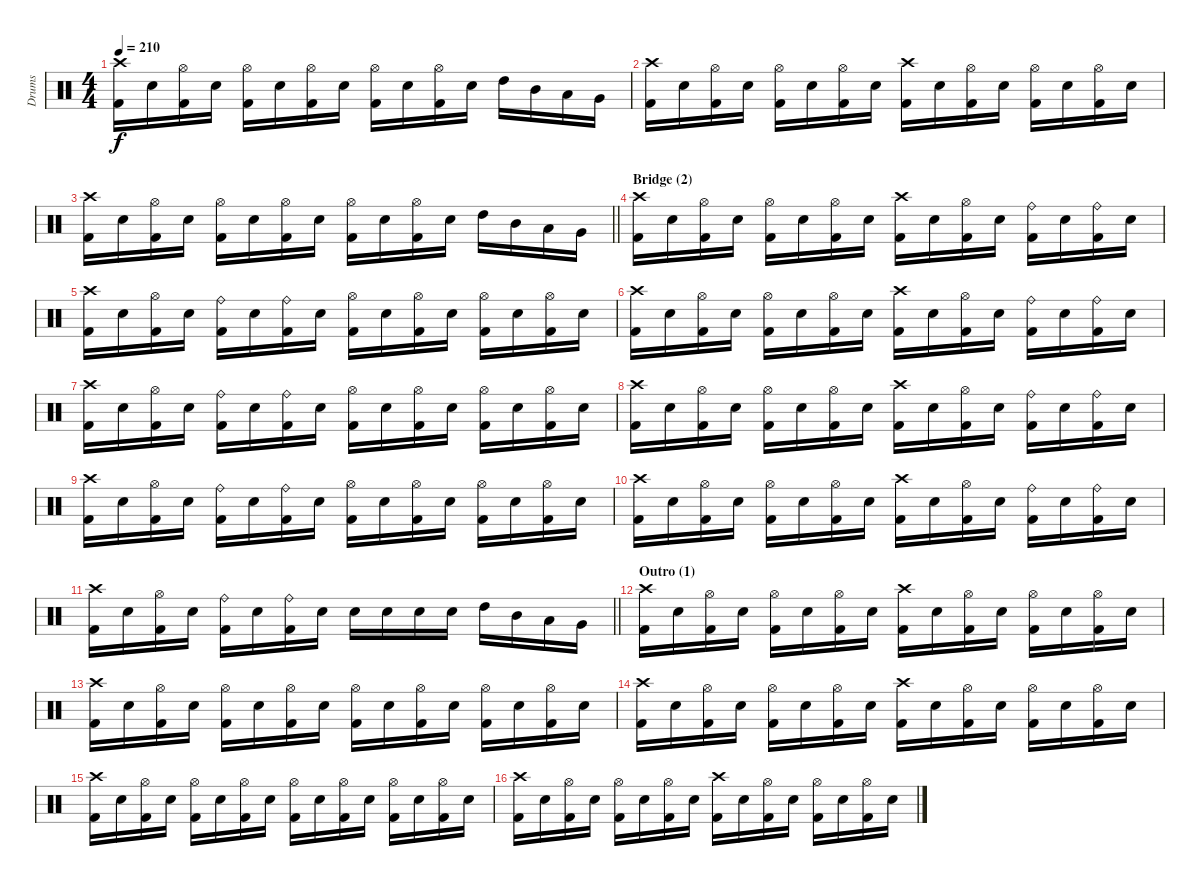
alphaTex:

\track ("Drums" "Drums") {instrument percussion}
\staff {score}
\articulation defaults
\ts (4 4)
\tempo 210
\clef neutral
\ks c
("Crash high (hit)" "Kick (hit) 2").16{dy f} "Electric Snare (hit)".16 ("Hi-Hat (open)" "Kick (hit) 2").16 "Electric Snare (hit)".16 ("Hi-Hat (open)" "Kick (hit) 2").16 "Electric Snare (hit)".16 ("Hi-Hat (open)" "Kick (hit) 2").16 "Electric Snare (hit)".16 ("Hi-Hat (open)" "Kick (hit) 2").16 "Electric Snare (hit)".16 ("Hi-Hat (open)" "Kick (hit) 2").16 "Electric Snare (hit)".16 "High Tom (hit)".16 "Mid Tom (hit)".16 "Low Tom (hit)".16 "Very Low Tom (hit)".16 |
("Crash high (hit)" "Kick (hit) 2").16 "Electric Snare (hit)".16 ("Hi-Hat (open)" "Kick (hit) 2").16 "Electric Snare (hit)".16 ("Hi-Hat (open)" "Kick (hit) 2").16 "Electric Snare (hit)".16 ("Hi-Hat (open)" "Kick (hit) 2").16 "Electric Snare (hit)".16 ("Crash high (hit)" "Kick (hit) 2").16 "Electric Snare (hit)".16 ("Hi-Hat (open)" "Kick (hit) 2").16 "Electric Snare (hit)".16 ("Hi-Hat (open)" "Kick (hit) 2").16 "Electric Snare (hit)".16 ("Hi-Hat (open)" "Kick (hit) 2").16 "Electric Snare (hit)".16 |
\barLineRight lightlight
("Crash high (hit)" "Kick (hit) 2").16 "Electric Snare (hit)".16 ("Hi-Hat (open)" "Kick (hit) 2").16 "Electric Snare (hit)".16 ("Hi-Hat (open)" "Kick (hit) 2").16 "Electric Snare (hit)".16 ("Hi-Hat (open)" "Kick (hit) 2").16 "Electric Snare (hit)".16 ("Hi-Hat (open)" "Kick (hit) 2").16 "Electric Snare (hit)".16 ("Hi-Hat (open)" "Kick (hit) 2").16 "Electric Snare (hit)".16 "High Tom (hit)".16 "Mid Tom (hit)".16 "Low Tom (hit)".16 "Very Low Tom (hit)".16 |
\section ("" "Bridge (2)")
("Crash high (hit)" "Kick (hit) 2").16 "Electric Snare (hit)".16 ("Hi-Hat (open)" "Kick (hit) 2").16 "Electric Snare (hit)".16 ("Hi-Hat (open)" "Kick (hit) 2").16 "Electric Snare (hit)".16 ("Hi-Hat (open)" "Kick (hit) 2").16 "Electric Snare (hit)".16 ("Crash high (hit)" "Kick (hit) 2").16 "Electric Snare (hit)".16 ("Hi-Hat (open)" "Kick (hit) 2").16 "Electric Snare (hit)".16 ("Ride (bell)" "Kick (hit) 2").16 "Electric Snare (hit)".16 ("Ride (bell)" "Kick (hit) 2").16 "Electric Snare (hit)".16 |
("Crash high (hit)" "Kick (hit) 2").16 "Electric Snare (hit)".16 ("Hi-Hat (open)" "Kick (hit) 2").16 "Electric Snare (hit)".16 ("Ride (bell)" "Kick (hit) 2").16 "Electric Snare (hit)".16 ("Ride (bell)" "Kick (hit) 2").16 "Electric Snare (hit)".16 ("Hi-Hat (open)" "Kick (hit) 2").16 "Electric Snare (hit)".16 ("Hi-Hat (open)" "Kick (hit) 2").16 "Electric Snare (hit)".16 ("Hi-Hat (open)" "Kick (hit) 2").16 "Electric Snare (hit)".16 ("Hi-Hat (open)" "Kick (hit) 2").16 "Electric Snare (hit)".16 |
("Crash high (hit)" "Kick (hit) 2").16 "Electric Snare (hit)".16 ("Hi-Hat (open)" "Kick (hit) 2").16 "Electric Snare (hit)".16 ("Hi-Hat (open)" "Kick (hit) 2").16 "Electric Snare (hit)".16 ("Hi-Hat (open)" "Kick (hit) 2").16 "Electric Snare (hit)".16 ("Crash high (hit)" "Kick (hit) 2").16 "Electric Snare (hit)".16 ("Hi-Hat (open)" "Kick (hit) 2").16 "Electric Snare (hit)".16 ("Ride (bell)" "Kick (hit) 2").16 "Electric Snare (hit)".16 ("Ride (bell)" "Kick (hit) 2").16 "Electric Snare (hit)".16 |
("Crash high (hit)" "Kick (hit) 2").16 "Electric Snare (hit)".16 ("Hi-Hat (open)" "Kick (hit) 2").16 "Electric Snare (hit)".16 ("Ride (bell)" "Kick (hit) 2").16 "Electric Snare (hit)".16 ("Ride (bell)" "Kick (hit) 2").16 "Electric Snare (hit)".16 ("Hi-Hat (open)" "Kick (hit) 2").16 "Electric Snare (hit)".16 ("Hi-Hat (open)" "Kick (hit) 2").16 "Electric Snare (hit)".16 ("Hi-Hat (open)" "Kick (hit) 2").16 "Electric Snare (hit)".16 ("Hi-Hat (open)" "Kick (hit) 2").16 "Electric Snare (hit)".16 |
("Crash high (hit)" "Kick (hit) 2").16 "Electric Snare (hit)".16 ("Hi-Hat (open)" "Kick (hit) 2").16 "Electric Snare (hit)".16 ("Hi-Hat (open)" "Kick (hit) 2").16 "Electric Snare (hit)".16 ("Hi-Hat (open)" "Kick (hit) 2").16 "Electric Snare (hit)".16 ("Crash high (hit)" "Kick (hit) 2").16 "Electric Snare (hit)".16 ("Hi-Hat (open)" "Kick (hit) 2").16 "Electric Snare (hit)".16 ("Ride (bell)" "Kick (hit) 2").16 "Electric Snare (hit)".16 ("Ride (bell)" "Kick (hit) 2").16 "Electric Snare (hit)".16 |
("Crash high (hit)" "Kick (hit) 2").16 "Electric Snare (hit)".16 ("Hi-Hat (open)" "Kick (hit) 2").16 "Electric Snare (hit)".16 ("Ride (bell)" "Kick (hit) 2").16 "Electric Snare (hit)".16 ("Ride (bell)" "Kick (hit) 2").16 "Electric Snare (hit)".16 ("Hi-Hat (open)" "Kick (hit) 2").16 "Electric Snare (hit)".16 ("Hi-Hat (open)" "Kick (hit) 2").16 "Electric Snare (hit)".16 ("Hi-Hat (open)" "Kick (hit) 2").16 "Electric Snare (hit)".16 ("Hi-Hat (open)" "Kick (hit) 2").16 "Electric Snare (hit)".16 |
("Crash high (hit)" "Kick (hit) 2").16 "Electric Snare (hit)".16 ("Hi-Hat (open)" "Kick (hit) 2").16 "Electric Snare (hit)".16 ("Hi-Hat (open)" "Kick (hit) 2").16 "Electric Snare (hit)".16 ("Hi-Hat (open)" "Kick (hit) 2").16 "Electric Snare (hit)".16 ("Crash high (hit)" "Kick (hit) 2").16 "Electric Snare (hit)".16 ("Hi-Hat (open)" "Kick (hit) 2").16 "Electric Snare (hit)".16 ("Ride (bell)" "Kick (hit) 2").16 "Electric Snare (hit)".16 ("Ride (bell)" "Kick (hit) 2").16 "Electric Snare (hit)".16 |
\barLineRight lightlight
("Crash high (hit)" "Kick (hit) 2").16 "Electric Snare (hit)".16 ("Hi-Hat (open)" "Kick (hit) 2").16 "Electric Snare (hit)".16 ("Ride (bell)" "Kick (hit) 2").16 "Electric Snare (hit)".16 ("Ride (bell)" "Kick (hit) 2").16 "Electric Snare (hit)".16 "Electric Snare (hit)".16 "Electric Snare (hit)".16 "Electric Snare (hit)".16 "Electric Snare (hit)".16 "High Tom (hit)".16 "Mid Tom (hit)".16 "Low Tom (hit)".16 "Very Low Tom (hit)".16 |
\section ("" "Outro (1)")
("Crash high (hit)" "Kick (hit) 2").16 "Electric Snare (hit)".16 ("Hi-Hat (open)" "Kick (hit) 2").16 "Electric Snare (hit)".16 ("Hi-Hat (open)" "Kick (hit) 2").16 "Electric Snare (hit)".16 ("Hi-Hat (open)" "Kick (hit) 2").16 "Electric Snare (hit)".16 ("Crash high (hit)" "Kick (hit) 2").16 "Electric Snare (hit)".16 ("Hi-Hat (open)" "Kick (hit) 2").16 "Electric Snare (hit)".16 ("Hi-Hat (open)" "Kick (hit) 2").16 "Electric Snare (hit)".16 ("Hi-Hat (open)" "Kick (hit) 2").16 "Electric Snare (hit)".16 |
("Crash high (hit)" "Kick (hit) 2").16 "Electric Snare (hit)".16 ("Hi-Hat (open)" "Kick (hit) 2").16 "Electric Snare (hit)".16 ("Hi-Hat (open)" "Kick (hit) 2").16 "Electric Snare (hit)".16 ("Hi-Hat (open)" "Kick (hit) 2").16 "Electric Snare (hit)".16 ("Hi-Hat (open)" "Kick (hit) 2").16 "Electric Snare (hit)".16 ("Hi-Hat (open)" "Kick (hit) 2").16 "Electric Snare (hit)".16 ("Hi-Hat (open)" "Kick (hit) 2").16 "Electric Snare (hit)".16 ("Hi-Hat (open)" "Kick (hit) 2").16 "Electric Snare (hit)".16 |
("Crash high (hit)" "Kick (hit) 2").16 "Electric Snare (hit)".16 ("Hi-Hat (open)" "Kick (hit) 2").16 "Electric Snare (hit)".16 ("Hi-Hat (open)" "Kick (hit) 2").16 "Electric Snare (hit)".16 ("Hi-Hat (open)" "Kick (hit) 2").16 "Electric Snare (hit)".16 ("Crash high (hit)" "Kick (hit) 2").16 "Electric Snare (hit)".16 ("Hi-Hat (open)" "Kick (hit) 2").16 "Electric Snare (hit)".16 ("Hi-Hat (open)" "Kick (hit) 2").16 "Electric Snare (hit)".16 ("Hi-Hat (open)" "Kick (hit) 2").16 "Electric Snare (hit)".16 |
("Crash high (hit)" "Kick (hit) 2").16 "Electric Snare (hit)".16 ("Hi-Hat (open)" "Kick (hit) 2").16 "Electric Snare (hit)".16 ("Hi-Hat (open)" "Kick (hit) 2").16 "Electric Snare (hit)".16 ("Hi-Hat (open)" "Kick (hit) 2").16 "Electric Snare (hit)".16 ("Hi-Hat (open)" "Kick (hit) 2").16 "Electric Snare (hit)".16 ("Hi-Hat (open)" "Kick (hit) 2").16 "Electric Snare (hit)".16 ("Hi-Hat (open)" "Kick (hit) 2").16 "Electric Snare (hit)".16 ("Hi-Hat (open)" "Kick (hit) 2").16 "Electric Snare (hit)".16 |
("Crash high (hit)" "Kick (hit) 2").16 "Electric Snare (hit)".16 ("Hi-Hat (open)" "Kick (hit) 2").16 "Electric Snare (hit)".16 ("Hi-Hat (open)" "Kick (hit) 2").16 "Electric Snare (hit)".16 ("Hi-Hat (open)" "Kick (hit) 2").16 "Electric Snare (hit)".16 ("Crash high (hit)" "Kick (hit) 2").16 "Electric Snare (hit)".16 ("Hi-Hat (open)" "Kick (hit) 2").16 "Electric Snare (hit)".16 ("Hi-Hat (open)" "Kick (hit) 2").16 "Electric Snare (hit)".16 ("Hi-Hat (open)" "Kick (hit) 2").16 "Electric Snare (hit)".16
